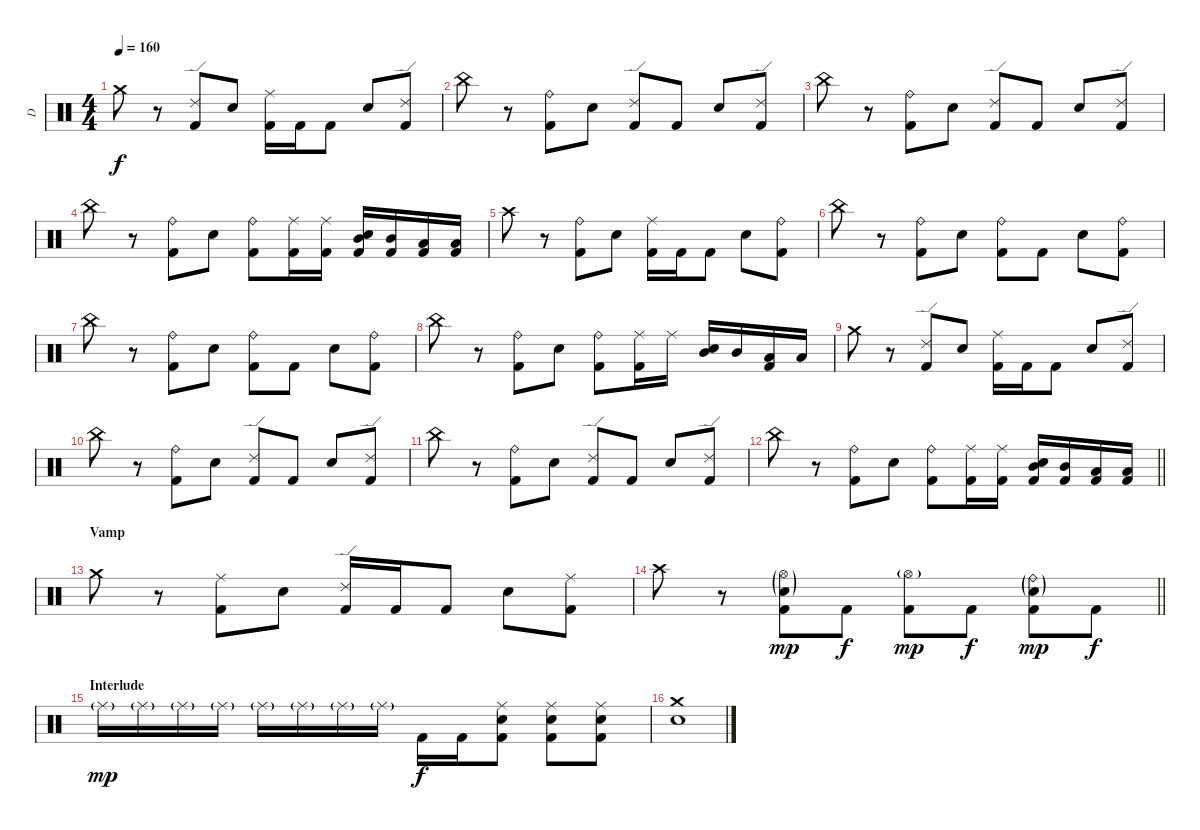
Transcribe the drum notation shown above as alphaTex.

\track ("D" "D") {instrument percussion}
\staff {score}
\articulation defaults
\ts (4 4)
\section ("" "")
\tempo 160
\clef neutral
\ks c "Crash medium (hit)".8{dy f}
r.8 ("Ride (edge) 2" "Kick (hit) 2").8 "Electric Snare (hit)".8 ("Ride (middle)" "Kick (hit) 2").16 "Kick (hit) 2".16 "Kick (hit) 2".8 "Electric Snare (hit)".8 ("Ride (edge) 2" "Kick (hit) 2").8 |
"China (hit)".8 r.8 ("Ride (bell)" "Kick (hit) 2").8 "Electric Snare (hit)".8 ("Ride (edge) 2" "Kick (hit) 2").8 "Kick (hit) 2".8 "Electric Snare (hit)".8 ("Ride (edge) 2" "Kick (hit) 2").8 |
"China (hit)".8 r.8 ("Ride (bell)" "Kick (hit) 2").8 "Electric Snare (hit)".8 ("Ride (edge) 2" "Kick (hit) 2").8 "Kick (hit) 2".8 "Electric Snare (hit)".8 ("Ride (edge) 2" "Kick (hit) 2").8 |
"China (hit)".8 r.8 ("Ride (bell)" "Kick (hit) 2").8 "Electric Snare (hit)".8 ("Ride (bell)" "Kick (hit) 2").8 ("Ride (middle)" "Kick (hit) 2").16 ("Ride (middle)" "Kick (hit) 2").16 ("Mid Tom (hit)" "Electric Snare (hit)" "Kick (hit) 2").16 ("Mid Tom (hit)" "Kick (hit) 2").16 ("Low Tom (hit)" "Kick (hit) 2").16 ("Low Tom (hit)" "Kick (hit) 2").16 |
"Crash high (hit)".8 r.8 ("Ride (bell)" "Kick (hit) 2").8 "Electric Snare (hit)".8 ("Ride (middle)" "Kick (hit) 2").16 "Kick (hit) 2".16 "Kick (hit) 2".8 "Electric Snare (hit)".8 ("Ride (bell)" "Kick (hit) 2").8 |
"China (hit)".8 r.8 ("Ride (bell)" "Kick (hit) 2").8 "Electric Snare (hit)".8 ("Ride (bell)" "Kick (hit) 2").8 "Kick (hit) 2".8 "Electric Snare (hit)".8 ("Ride (bell)" "Kick (hit) 2").8 |
"China (hit)".8 r.8 ("Ride (bell)" "Kick (hit) 2").8 "Electric Snare (hit)".8 ("Ride (bell)" "Kick (hit) 2").8 "Kick (hit) 2".8 "Electric Snare (hit)".8 ("Ride (bell)" "Kick (hit) 2").8 |
"China (hit)".8 r.8 ("Ride (bell)" "Kick (hit) 2").8 "Electric Snare (hit)".8 ("Ride (bell)" "Kick (hit) 2").8 ("Ride (middle)" "Kick (hit) 2").16 "Ride (middle)".16 ("Mid Tom (hit)" "Electric Snare (hit)").16 "Mid Tom (hit)".16 ("Low Tom (hit)" "Kick (hit) 2").16 "Low Tom (hit)".16 |
"Crash medium (hit)".8 r.8 ("Ride (edge) 2" "Kick (hit) 2").8 "Electric Snare (hit)".8 ("Ride (middle)" "Kick (hit) 2").16 "Kick (hit) 2".16 "Kick (hit) 2".8 "Electric Snare (hit)".8 ("Ride (edge) 2" "Kick (hit) 2").8 |
"China (hit)".8 r.8 ("Ride (bell)" "Kick (hit) 2").8 "Electric Snare (hit)".8 ("Ride (edge) 2" "Kick (hit) 2").8 "Kick (hit) 2".8 "Electric Snare (hit)".8 ("Ride (edge) 2" "Kick (hit) 2").8 |
"China (hit)".8 r.8 ("Ride (bell)" "Kick (hit) 2").8 "Electric Snare (hit)".8 ("Ride (edge) 2" "Kick (hit) 2").8 "Kick (hit) 2".8 "Electric Snare (hit)".8 ("Ride (edge) 2" "Kick (hit) 2").8 |
\barLineRight lightlight "China (hit)".8
r.8 ("Ride (bell)" "Kick (hit) 2").8 "Electric Snare (hit)".8 ("Ride (bell)" "Kick (hit) 2").8 ("Ride (middle)" "Kick (hit) 2").16 ("Ride (middle)" "Kick (hit) 2").16 ("Mid Tom (hit)" "Electric Snare (hit)" "Kick (hit) 2").16 ("Mid Tom (hit)" "Kick (hit) 2").16 ("Low Tom (hit)" "Kick (hit) 2").16 ("Low Tom (hit)" "Kick (hit) 2").16 |
\section ("" "Vamp")
"Crash medium (hit)".8 r.8 ("Ride (middle)" "Kick (hit) 2").8 "Electric Snare (hit)".8 ("Ride (edge) 2" "Kick (hit) 2").16 "Kick (hit) 2".16 "Kick (hit) 2".8 "Electric Snare (hit)".8 ("Ride (middle)" "Kick (hit) 2").8 |
\barLineRight lightlight "Crash high (hit)".8
r.8 ("Hi-Hat (open)"{g} "Electric Snare (hit)"{g} "Kick (hit) 2").8{dy mp} "Kick (hit) 2".8{dy f} ("Hi-Hat (open)"{g} "Kick (hit) 2").8{dy mp} "Kick (hit) 2".8{dy f} ("Ride (bell)"{g} "Electric Snare (hit)"{g} "Kick (hit) 2").8{dy mp} "Kick (hit) 2".8{dy f} |
\section ("" "Interlude")
"Ride (middle)"{g}.16{dy mp} "Ride (middle)"{g}.16 "Ride (middle)"{g}.16 "Ride (middle)"{g}.16 "Ride (middle)"{g}.16 "Ride (middle)"{g}.16 "Ride (middle)"{g}.16 "Ride (middle)"{g}.16 "Kick (hit) 2".16{dy f} "Kick (hit) 2".16 ("Ride (middle)" "Electric Snare (hit)" "Kick (hit) 2").8 ("Ride (middle)" "Electric Snare (hit)" "Kick (hit) 2").8 ("Ride (middle)" "Electric Snare (hit)" "Kick (hit) 2").8{volume 6} |
("Crash medium (hit)" "Electric Snare (hit)").1
